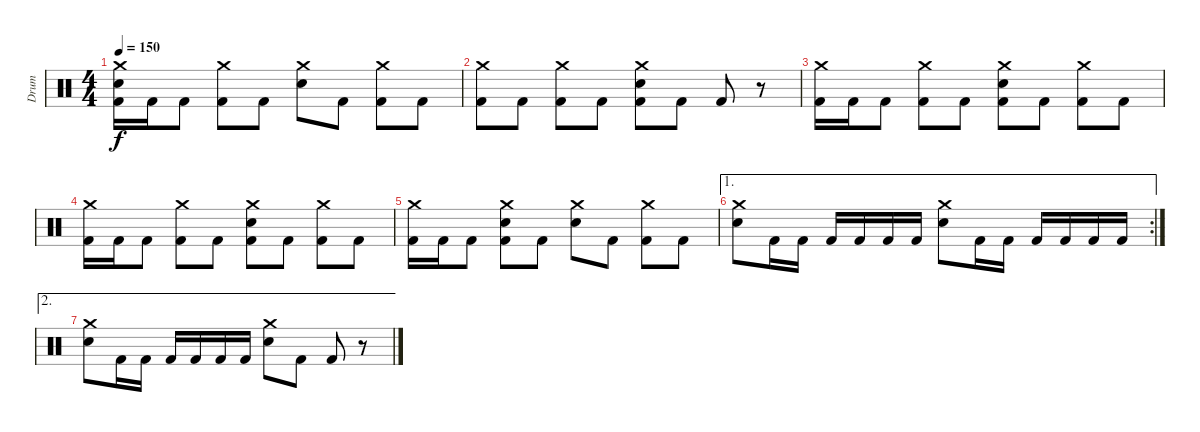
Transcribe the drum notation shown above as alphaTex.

\track ("Drum" "Drum") {instrument percussion}
\staff {score}
\articulation defaults
\ts (4 4)
\tempo 150
\clef neutral
\ks c
("Crash medium (hit)" "Electric Snare (hit)" "Kick (hit) 2").16{dy f} "Kick (hit) 2".16 "Kick (hit) 2".8 ("Crash medium (hit)" "Kick (hit) 2").8 "Kick (hit) 2".8 ("Crash medium (hit)" "Electric Snare (hit)").8 "Kick (hit) 2".8 ("Crash medium (hit)" "Kick (hit) 2").8 "Kick (hit) 2".8 |
("Crash medium (hit)" "Kick (hit) 2").8 "Kick (hit) 2".8 ("Crash medium (hit)" "Kick (hit) 2").8 "Kick (hit) 2".8 ("Crash medium (hit)" "Electric Snare (hit)" "Kick (hit) 2").8 "Kick (hit) 2".8 "Kick (hit) 2".8 r.8 |
("Crash medium (hit)" "Kick (hit) 2").16 "Kick (hit) 2".16 "Kick (hit) 2".8 ("Crash medium (hit)" "Kick (hit) 2").8 "Kick (hit) 2".8 ("Crash medium (hit)" "Electric Snare (hit)" "Kick (hit) 2").8 "Kick (hit) 2".8 ("Crash medium (hit)" "Kick (hit) 2").8 "Kick (hit) 2".8 |
("Crash medium (hit)" "Kick (hit) 2").16 "Kick (hit) 2".16 "Kick (hit) 2".8 ("Crash medium (hit)" "Kick (hit) 2").8 "Kick (hit) 2".8 ("Crash medium (hit)" "Electric Snare (hit)" "Kick (hit) 2").8 "Kick (hit) 2".8 ("Crash medium (hit)" "Kick (hit) 2").8 "Kick (hit) 2".8 |
("Crash medium (hit)" "Kick (hit) 2").16 "Kick (hit) 2".16 "Kick (hit) 2".8 ("Crash medium (hit)" "Electric Snare (hit)" "Kick (hit) 2").8 "Kick (hit) 2".8 ("Crash medium (hit)" "Electric Snare (hit)").8 "Kick (hit) 2".8 ("Crash medium (hit)" "Kick (hit) 2").8 "Kick (hit) 2".8 |
\ae 1
\rc 2
("Crash medium (hit)" "Electric Snare (hit)").8 "Kick (hit) 2".16 "Kick (hit) 2".16 "Kick (hit) 2".16 "Kick (hit) 2".16 "Kick (hit) 2".16 "Kick (hit) 2".16 ("Crash medium (hit)" "Electric Snare (hit)").8 "Kick (hit) 2".16 "Kick (hit) 2".16 "Kick (hit) 2".16 "Kick (hit) 2".16 "Kick (hit) 2".16 "Kick (hit) 2".16 |
\ae 2
("Crash medium (hit)" "Electric Snare (hit)").8 "Kick (hit) 2".16 "Kick (hit) 2".16 "Kick (hit) 2".16 "Kick (hit) 2".16 "Kick (hit) 2".16 "Kick (hit) 2".16 ("Crash medium (hit)" "Electric Snare (hit)").8 "Kick (hit) 2".8 "Kick (hit) 2".8 r.8
